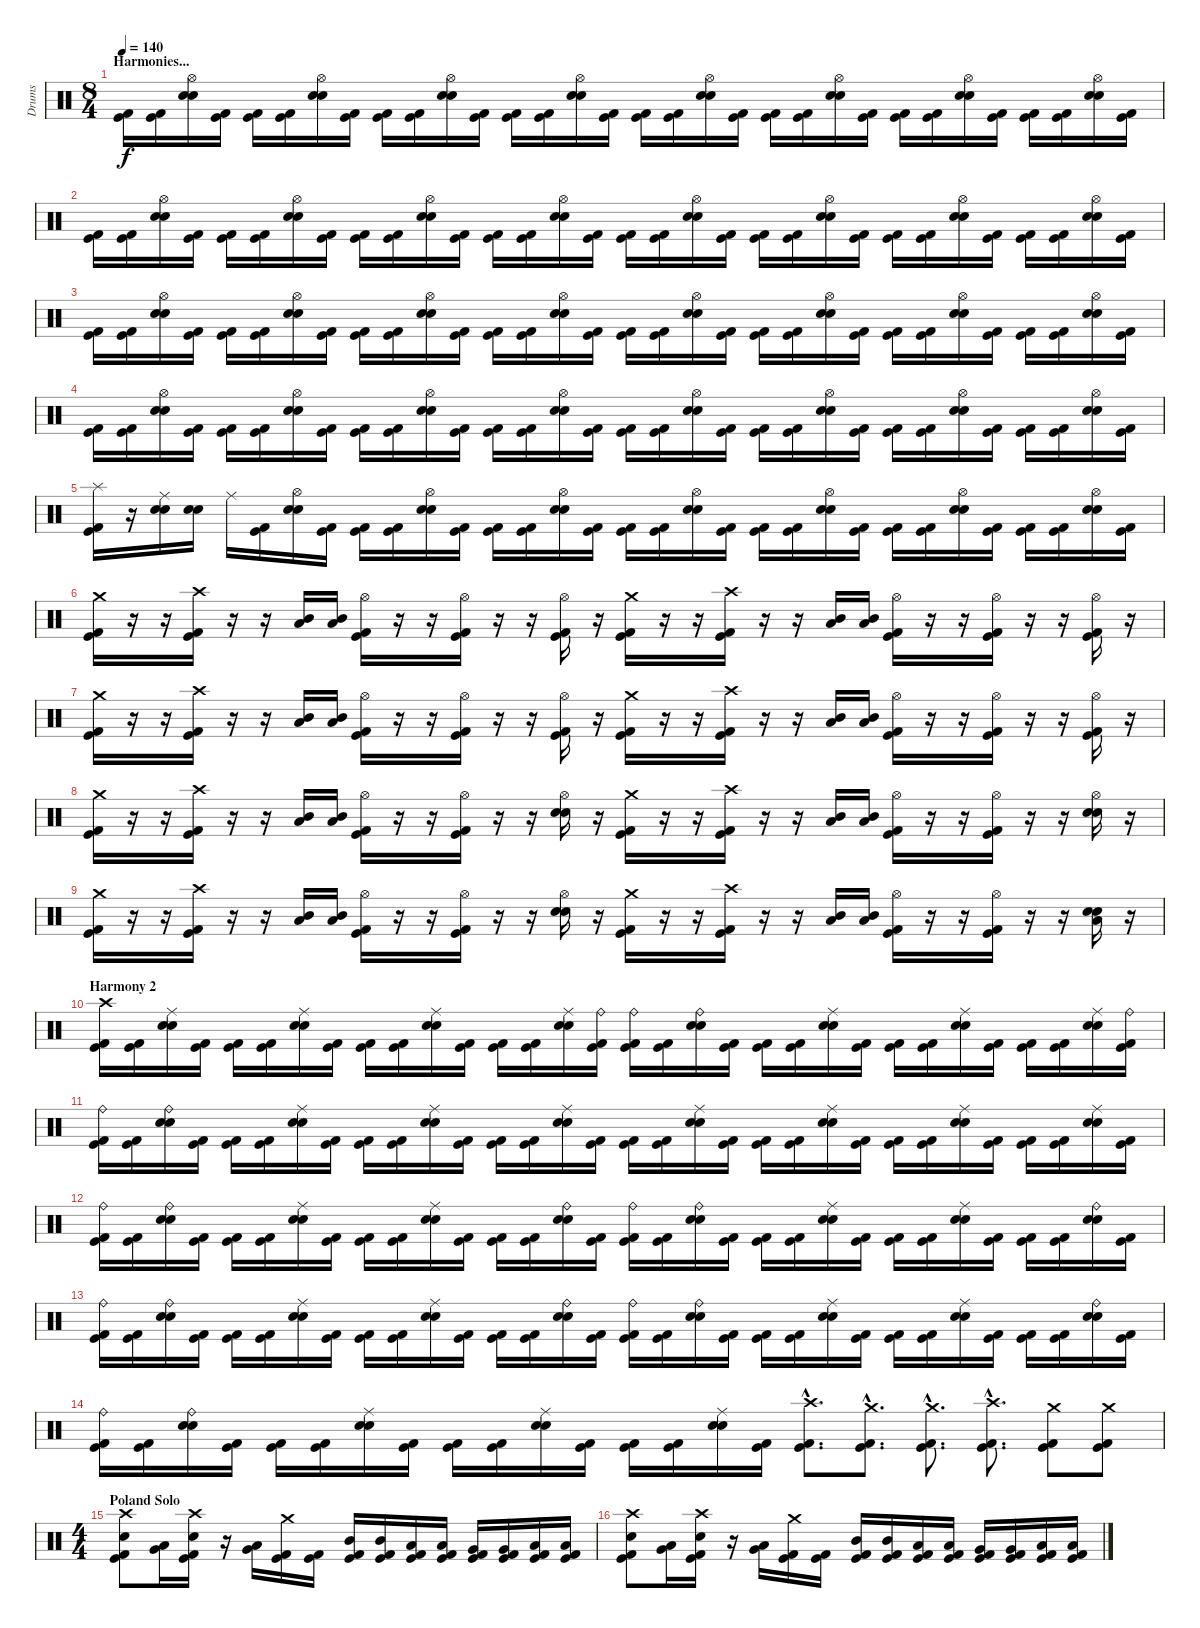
\track ("Drums" "Drums") {instrument percussion}
\staff {score}
\articulation defaults
\ts (8 4)
\section ("" "Harmonies...")
\tempo 140
\clef neutral
\ks c
("Kick (hit) 2" "Kick (hit)").16{dy f} ("Kick (hit) 2" "Kick (hit)").16 ("Hi-Hat (open)" "Snare (hit) 2" "Electric Snare (hit)").16 ("Kick (hit) 2" "Kick (hit)").16 ("Kick (hit) 2" "Kick (hit)").16 ("Kick (hit) 2" "Kick (hit)").16 ("Hi-Hat (open)" "Snare (hit) 2" "Electric Snare (hit)").16 ("Kick (hit) 2" "Kick (hit)").16 ("Kick (hit) 2" "Kick (hit)").16 ("Kick (hit) 2" "Kick (hit)").16 ("Hi-Hat (open)" "Snare (hit) 2" "Electric Snare (hit)").16 ("Kick (hit) 2" "Kick (hit)").16 ("Kick (hit) 2" "Kick (hit)").16 ("Kick (hit) 2" "Kick (hit)").16 ("Hi-Hat (open)" "Snare (hit) 2" "Electric Snare (hit)").16 ("Kick (hit) 2" "Kick (hit)").16 ("Kick (hit) 2" "Kick (hit)").16 ("Kick (hit) 2" "Kick (hit)").16 ("Hi-Hat (open)" "Snare (hit) 2" "Electric Snare (hit)").16 ("Kick (hit) 2" "Kick (hit)").16 ("Kick (hit) 2" "Kick (hit)").16 ("Kick (hit) 2" "Kick (hit)").16 ("Hi-Hat (open)" "Snare (hit) 2" "Electric Snare (hit)").16 ("Kick (hit) 2" "Kick (hit)").16 ("Kick (hit) 2" "Kick (hit)").16 ("Kick (hit) 2" "Kick (hit)").16 ("Hi-Hat (open)" "Snare (hit) 2" "Electric Snare (hit)").16 ("Kick (hit) 2" "Kick (hit)").16 ("Kick (hit) 2" "Kick (hit)").16 ("Kick (hit) 2" "Kick (hit)").16 ("Hi-Hat (open)" "Snare (hit) 2" "Electric Snare (hit)").16 ("Kick (hit) 2" "Kick (hit)").16 |
("Kick (hit) 2" "Kick (hit)").16 ("Kick (hit) 2" "Kick (hit)").16 ("Hi-Hat (open)" "Snare (hit) 2" "Electric Snare (hit)").16 ("Kick (hit) 2" "Kick (hit)").16 ("Kick (hit) 2" "Kick (hit)").16 ("Kick (hit) 2" "Kick (hit)").16 ("Hi-Hat (open)" "Snare (hit) 2" "Electric Snare (hit)").16 ("Kick (hit) 2" "Kick (hit)").16 ("Kick (hit) 2" "Kick (hit)").16 ("Kick (hit) 2" "Kick (hit)").16 ("Hi-Hat (open)" "Snare (hit) 2" "Electric Snare (hit)").16 ("Kick (hit) 2" "Kick (hit)").16 ("Kick (hit) 2" "Kick (hit)").16 ("Kick (hit) 2" "Kick (hit)").16 ("Hi-Hat (open)" "Snare (hit) 2" "Electric Snare (hit)").16 ("Kick (hit) 2" "Kick (hit)").16 ("Kick (hit) 2" "Kick (hit)").16 ("Kick (hit) 2" "Kick (hit)").16 ("Hi-Hat (open)" "Snare (hit) 2" "Electric Snare (hit)").16 ("Kick (hit) 2" "Kick (hit)").16 ("Kick (hit) 2" "Kick (hit)").16 ("Kick (hit) 2" "Kick (hit)").16 ("Hi-Hat (open)" "Snare (hit) 2" "Electric Snare (hit)").16 ("Kick (hit) 2" "Kick (hit)").16 ("Kick (hit) 2" "Kick (hit)").16 ("Kick (hit) 2" "Kick (hit)").16 ("Hi-Hat (open)" "Snare (hit) 2" "Electric Snare (hit)").16 ("Kick (hit) 2" "Kick (hit)").16 ("Kick (hit) 2" "Kick (hit)").16 ("Kick (hit) 2" "Kick (hit)").16 ("Hi-Hat (open)" "Snare (hit) 2" "Electric Snare (hit)").16 ("Kick (hit) 2" "Kick (hit)").16 |
("Kick (hit) 2" "Kick (hit)").16 ("Kick (hit) 2" "Kick (hit)").16 ("Hi-Hat (open)" "Snare (hit) 2" "Electric Snare (hit)").16 ("Kick (hit) 2" "Kick (hit)").16 ("Kick (hit) 2" "Kick (hit)").16 ("Kick (hit) 2" "Kick (hit)").16 ("Hi-Hat (open)" "Snare (hit) 2" "Electric Snare (hit)").16 ("Kick (hit) 2" "Kick (hit)").16 ("Kick (hit) 2" "Kick (hit)").16 ("Kick (hit) 2" "Kick (hit)").16 ("Hi-Hat (open)" "Snare (hit) 2" "Electric Snare (hit)").16 ("Kick (hit) 2" "Kick (hit)").16 ("Kick (hit) 2" "Kick (hit)").16 ("Kick (hit) 2" "Kick (hit)").16 ("Hi-Hat (open)" "Snare (hit) 2" "Electric Snare (hit)").16 ("Kick (hit) 2" "Kick (hit)").16 ("Kick (hit) 2" "Kick (hit)").16 ("Kick (hit) 2" "Kick (hit)").16 ("Hi-Hat (open)" "Snare (hit) 2" "Electric Snare (hit)").16 ("Kick (hit) 2" "Kick (hit)").16 ("Kick (hit) 2" "Kick (hit)").16 ("Kick (hit) 2" "Kick (hit)").16 ("Hi-Hat (open)" "Snare (hit) 2" "Electric Snare (hit)").16 ("Kick (hit) 2" "Kick (hit)").16 ("Kick (hit) 2" "Kick (hit)").16 ("Kick (hit) 2" "Kick (hit)").16 ("Hi-Hat (open)" "Snare (hit) 2" "Electric Snare (hit)").16 ("Kick (hit) 2" "Kick (hit)").16 ("Kick (hit) 2" "Kick (hit)").16 ("Kick (hit) 2" "Kick (hit)").16 ("Hi-Hat (open)" "Snare (hit) 2" "Electric Snare (hit)").16 ("Kick (hit) 2" "Kick (hit)").16 |
("Kick (hit) 2" "Kick (hit)").16 ("Kick (hit) 2" "Kick (hit)").16 ("Hi-Hat (open)" "Snare (hit) 2" "Electric Snare (hit)").16 ("Kick (hit) 2" "Kick (hit)").16 ("Kick (hit) 2" "Kick (hit)").16 ("Kick (hit) 2" "Kick (hit)").16 ("Hi-Hat (open)" "Snare (hit) 2" "Electric Snare (hit)").16 ("Kick (hit) 2" "Kick (hit)").16 ("Kick (hit) 2" "Kick (hit)").16 ("Kick (hit) 2" "Kick (hit)").16 ("Hi-Hat (open)" "Snare (hit) 2" "Electric Snare (hit)").16 ("Kick (hit) 2" "Kick (hit)").16 ("Kick (hit) 2" "Kick (hit)").16 ("Kick (hit) 2" "Kick (hit)").16 ("Hi-Hat (open)" "Snare (hit) 2" "Electric Snare (hit)").16 ("Kick (hit) 2" "Kick (hit)").16 ("Kick (hit) 2" "Kick (hit)").16 ("Kick (hit) 2" "Kick (hit)").16 ("Hi-Hat (open)" "Snare (hit) 2" "Electric Snare (hit)").16 ("Kick (hit) 2" "Kick (hit)").16 ("Kick (hit) 2" "Kick (hit)").16 ("Kick (hit) 2" "Kick (hit)").16 ("Hi-Hat (open)" "Snare (hit) 2" "Electric Snare (hit)").16 ("Kick (hit) 2" "Kick (hit)").16 ("Kick (hit) 2" "Kick (hit)").16 ("Kick (hit) 2" "Kick (hit)").16 ("Hi-Hat (open)" "Snare (hit) 2" "Electric Snare (hit)").16 ("Kick (hit) 2" "Kick (hit)").16 ("Kick (hit) 2" "Kick (hit)").16 ("Kick (hit) 2" "Kick (hit)").16 ("Hi-Hat (open)" "Snare (hit) 2" "Electric Snare (hit)").16 ("Kick (hit) 2" "Kick (hit)").16 |
("Splash (hit)" "Kick (hit) 2" "Kick (hit)").16 r.16 ("Ride (middle)" "Snare (hit) 2" "Electric Snare (hit)").16 ("Snare (hit) 2" "Electric Snare (hit)").16 "Ride (middle)".16 ("Kick (hit) 2" "Kick (hit)").16 ("Hi-Hat (open)" "Snare (hit) 2" "Electric Snare (hit)").16 ("Kick (hit) 2" "Kick (hit)").16 ("Kick (hit) 2" "Kick (hit)").16 ("Kick (hit) 2" "Kick (hit)").16 ("Hi-Hat (open)" "Snare (hit) 2" "Electric Snare (hit)").16 ("Kick (hit) 2" "Kick (hit)").16 ("Kick (hit) 2" "Kick (hit)").16 ("Kick (hit) 2" "Kick (hit)").16 ("Hi-Hat (open)" "Snare (hit) 2" "Electric Snare (hit)").16 ("Kick (hit) 2" "Kick (hit)").16 ("Kick (hit) 2" "Kick (hit)").16 ("Kick (hit) 2" "Kick (hit)").16 ("Hi-Hat (open)" "Snare (hit) 2" "Electric Snare (hit)").16 ("Kick (hit) 2" "Kick (hit)").16 ("Kick (hit) 2" "Kick (hit)").16 ("Kick (hit) 2" "Kick (hit)").16 ("Hi-Hat (open)" "Snare (hit) 2" "Electric Snare (hit)").16 ("Kick (hit) 2" "Kick (hit)").16 ("Kick (hit) 2" "Kick (hit)").16 ("Kick (hit) 2" "Kick (hit)").16 ("Hi-Hat (open)" "Snare (hit) 2" "Electric Snare (hit)").16 ("Kick (hit) 2" "Kick (hit)").16 ("Kick (hit) 2" "Kick (hit)").16 ("Kick (hit) 2" "Kick (hit)").16 ("Hi-Hat (open)" "Snare (hit) 2" "Electric Snare (hit)").16 ("Kick (hit) 2" "Kick (hit)").16 |
("Crash medium (hit)" "Kick (hit)" "Kick (hit) 2").16 r.16 r.16 ("Crash high (hit)" "Kick (hit)" "Kick (hit) 2").16 r.16 r.16 ("Low Tom (hit)" "Mid Tom (hit)").16 ("Low Tom (hit)" "Mid Tom (hit)").16 ("Hi-Hat (open)" "Kick (hit) 2" "Kick (hit)").16 r.16 r.16 ("Hi-Hat (open)" "Kick (hit)" "Kick (hit) 2").16 r.16 r.16 ("Hi-Hat (open)" "Kick (hit)" "Kick (hit) 2").16 r.16 ("Crash medium (hit)" "Kick (hit) 2" "Kick (hit)").16 r.16 r.16 ("Crash high (hit)" "Kick (hit)" "Kick (hit) 2").16 r.16 r.16 ("Low Tom (hit)" "Mid Tom (hit)").16 ("Low Tom (hit)" "Mid Tom (hit)").16 ("Hi-Hat (open)" "Kick (hit) 2" "Kick (hit)").16 r.16 r.16 ("Hi-Hat (open)" "Kick (hit)" "Kick (hit) 2").16 r.16 r.16 ("Hi-Hat (open)" "Kick (hit)" "Kick (hit) 2").16 r.16 |
("Crash medium (hit)" "Kick (hit)" "Kick (hit) 2").16 r.16 r.16 ("Crash high (hit)" "Kick (hit)" "Kick (hit) 2").16 r.16 r.16 ("Low Tom (hit)" "Mid Tom (hit)").16 ("Low Tom (hit)" "Mid Tom (hit)").16 ("Hi-Hat (open)" "Kick (hit) 2" "Kick (hit)").16 r.16 r.16 ("Hi-Hat (open)" "Kick (hit)" "Kick (hit) 2").16 r.16 r.16 ("Hi-Hat (open)" "Kick (hit)" "Kick (hit) 2").16 r.16 ("Crash medium (hit)" "Kick (hit) 2" "Kick (hit)").16 r.16 r.16 ("Crash high (hit)" "Kick (hit)" "Kick (hit) 2").16 r.16 r.16 ("Low Tom (hit)" "Mid Tom (hit)").16 ("Low Tom (hit)" "Mid Tom (hit)").16 ("Hi-Hat (open)" "Kick (hit) 2" "Kick (hit)").16 r.16 r.16 ("Hi-Hat (open)" "Kick (hit)" "Kick (hit) 2").16 r.16 r.16 ("Hi-Hat (open)" "Kick (hit)" "Kick (hit) 2").16 r.16 |
("Crash medium (hit)" "Kick (hit)" "Kick (hit) 2").16 r.16 r.16 ("Crash high (hit)" "Kick (hit)" "Kick (hit) 2").16 r.16 r.16 ("Low Tom (hit)" "Mid Tom (hit)").16 ("Low Tom (hit)" "Mid Tom (hit)").16 ("Hi-Hat (open)" "Kick (hit) 2" "Kick (hit)").16 r.16 r.16 ("Hi-Hat (open)" "Kick (hit)" "Kick (hit) 2").16 r.16 r.16 ("Hi-Hat (open)" "Snare (hit) 2" "Electric Snare (hit)").16 r.16 ("Crash medium (hit)" "Kick (hit) 2" "Kick (hit)").16 r.16 r.16 ("Crash high (hit)" "Kick (hit)" "Kick (hit) 2").16 r.16 r.16 ("Low Tom (hit)" "Mid Tom (hit)").16 ("Low Tom (hit)" "Mid Tom (hit)").16 ("Hi-Hat (open)" "Kick (hit) 2" "Kick (hit)").16 r.16 r.16 ("Hi-Hat (open)" "Kick (hit)" "Kick (hit) 2").16 r.16 r.16 ("Hi-Hat (open)" "Snare (hit) 2" "Electric Snare (hit)").16 r.16 |
("Crash medium (hit)" "Kick (hit)" "Kick (hit) 2").16 r.16 r.16 ("Crash high (hit)" "Kick (hit)" "Kick (hit) 2").16 r.16 r.16 ("Low Tom (hit)" "Mid Tom (hit)").16 ("Low Tom (hit)" "Mid Tom (hit)").16 ("Hi-Hat (open)" "Kick (hit) 2" "Kick (hit)").16 r.16 r.16 ("Hi-Hat (open)" "Kick (hit)" "Kick (hit) 2").16 r.16 r.16 ("Hi-Hat (open)" "Snare (hit) 2" "Electric Snare (hit)").16 r.16 ("Crash medium (hit)" "Kick (hit) 2" "Kick (hit)").16 r.16 r.16 ("Crash high (hit)" "Kick (hit)" "Kick (hit) 2").16 r.16 r.16 ("Low Tom (hit)" "Mid Tom (hit)").16 ("Low Tom (hit)" "Mid Tom (hit)").16 ("Hi-Hat (open)" "Kick (hit) 2" "Kick (hit)").16 r.16 r.16 ("Hi-Hat (open)" "Kick (hit)" "Kick (hit) 2").16 r.16 r.16 ("Low Floor Tom (hit)" "Snare (hit) 2" "Electric Snare (hit)").16 r.16 |
\section ("" "Harmony 2")
("Crash high (hit)" "Kick (hit) 2" "Kick (hit)").16 ("Kick (hit) 2" "Kick (hit)").16 ("Ride (middle)" "Snare (hit) 2" "Electric Snare (hit)").16 ("Kick (hit) 2" "Kick (hit)").16 ("Kick (hit) 2" "Kick (hit)").16 ("Kick (hit) 2" "Kick (hit)").16 ("Ride (middle)" "Snare (hit) 2" "Electric Snare (hit)").16 ("Kick (hit) 2" "Kick (hit)").16 ("Kick (hit) 2" "Kick (hit)").16 ("Kick (hit) 2" "Kick (hit)").16 ("Ride (middle)" "Snare (hit) 2" "Electric Snare (hit)").16 ("Kick (hit) 2" "Kick (hit)").16 ("Kick (hit) 2" "Kick (hit)").16 ("Kick (hit) 2" "Kick (hit)").16 ("Ride (middle)" "Snare (hit) 2" "Electric Snare (hit)").16 ("Ride (bell)" "Kick (hit) 2" "Kick (hit)").16 ("Ride (bell)" "Kick (hit) 2" "Kick (hit)").16 ("Kick (hit) 2" "Kick (hit)").16 ("Ride (bell)" "Snare (hit) 2" "Electric Snare (hit)").16 ("Kick (hit) 2" "Kick (hit)").16 ("Kick (hit) 2" "Kick (hit)").16 ("Kick (hit) 2" "Kick (hit)").16 ("Ride (middle)" "Snare (hit) 2" "Electric Snare (hit)").16 ("Kick (hit) 2" "Kick (hit)").16 ("Kick (hit) 2" "Kick (hit)").16 ("Kick (hit) 2" "Kick (hit)").16 ("Ride (middle)" "Snare (hit) 2" "Electric Snare (hit)").16 ("Kick (hit) 2" "Kick (hit)").16 ("Kick (hit) 2" "Kick (hit)").16 ("Kick (hit) 2" "Kick (hit)").16 ("Ride (middle)" "Snare (hit) 2" "Electric Snare (hit)").16 ("Ride (bell)" "Kick (hit) 2" "Kick (hit)").16 |
("Ride (bell)" "Kick (hit) 2" "Kick (hit)").16 ("Kick (hit) 2" "Kick (hit)").16 ("Ride (bell)" "Snare (hit) 2" "Electric Snare (hit)").16 ("Kick (hit) 2" "Kick (hit)").16 ("Kick (hit) 2" "Kick (hit)").16 ("Kick (hit) 2" "Kick (hit)").16 ("Ride (middle)" "Snare (hit) 2" "Electric Snare (hit)").16 ("Kick (hit) 2" "Kick (hit)").16 ("Kick (hit) 2" "Kick (hit)").16 ("Kick (hit) 2" "Kick (hit)").16 ("Ride (middle)" "Snare (hit) 2" "Electric Snare (hit)").16 ("Kick (hit) 2" "Kick (hit)").16 ("Kick (hit) 2" "Kick (hit)").16 ("Kick (hit) 2" "Kick (hit)").16 ("Ride (middle)" "Snare (hit) 2" "Electric Snare (hit)").16 ("Kick (hit) 2" "Kick (hit)").16 ("Kick (hit) 2" "Kick (hit)").16 ("Kick (hit) 2" "Kick (hit)").16 ("Ride (middle)" "Snare (hit) 2" "Electric Snare (hit)").16 ("Kick (hit) 2" "Kick (hit)").16 ("Kick (hit) 2" "Kick (hit)").16 ("Kick (hit) 2" "Kick (hit)").16 ("Ride (middle)" "Snare (hit) 2" "Electric Snare (hit)").16 ("Kick (hit) 2" "Kick (hit)").16 ("Kick (hit) 2" "Kick (hit)").16 ("Kick (hit) 2" "Kick (hit)").16 ("Ride (middle)" "Snare (hit) 2" "Electric Snare (hit)").16 ("Kick (hit) 2" "Kick (hit)").16 ("Kick (hit) 2" "Kick (hit)").16 ("Kick (hit) 2" "Kick (hit)").16 ("Ride (middle)" "Snare (hit) 2" "Electric Snare (hit)").16 ("Kick (hit) 2" "Kick (hit)").16 |
("Ride (bell)" "Kick (hit) 2" "Kick (hit)").16 ("Kick (hit) 2" "Kick (hit)").16 ("Ride (bell)" "Snare (hit) 2" "Electric Snare (hit)").16 ("Kick (hit) 2" "Kick (hit)").16 ("Kick (hit) 2" "Kick (hit)").16 ("Kick (hit) 2" "Kick (hit)").16 ("Ride (middle)" "Snare (hit) 2" "Electric Snare (hit)").16 ("Kick (hit) 2" "Kick (hit)").16 ("Kick (hit) 2" "Kick (hit)").16 ("Kick (hit) 2" "Kick (hit)").16 ("Ride (middle)" "Snare (hit) 2" "Electric Snare (hit)").16 ("Kick (hit) 2" "Kick (hit)").16 ("Kick (hit) 2" "Kick (hit)").16 ("Kick (hit) 2" "Kick (hit)").16 ("Ride (bell)" "Snare (hit) 2" "Electric Snare (hit)").16 ("Kick (hit) 2" "Kick (hit)").16 ("Ride (bell)" "Kick (hit) 2" "Kick (hit)").16 ("Kick (hit) 2" "Kick (hit)").16 ("Ride (bell)" "Snare (hit) 2" "Electric Snare (hit)").16 ("Kick (hit) 2" "Kick (hit)").16 ("Kick (hit) 2" "Kick (hit)").16 ("Kick (hit) 2" "Kick (hit)").16 ("Ride (middle)" "Snare (hit) 2" "Electric Snare (hit)").16 ("Kick (hit) 2" "Kick (hit)").16 ("Kick (hit) 2" "Kick (hit)").16 ("Kick (hit) 2" "Kick (hit)").16 ("Ride (middle)" "Snare (hit) 2" "Electric Snare (hit)").16 ("Kick (hit) 2" "Kick (hit)").16 ("Kick (hit) 2" "Kick (hit)").16 ("Kick (hit) 2" "Kick (hit)").16 ("Ride (bell)" "Snare (hit) 2" "Electric Snare (hit)").16 ("Kick (hit) 2" "Kick (hit)").16 |
("Ride (bell)" "Kick (hit) 2" "Kick (hit)").16 ("Kick (hit) 2" "Kick (hit)").16 ("Ride (bell)" "Snare (hit) 2" "Electric Snare (hit)").16 ("Kick (hit) 2" "Kick (hit)").16 ("Kick (hit) 2" "Kick (hit)").16 ("Kick (hit) 2" "Kick (hit)").16 ("Ride (middle)" "Snare (hit) 2" "Electric Snare (hit)").16 ("Kick (hit) 2" "Kick (hit)").16 ("Kick (hit) 2" "Kick (hit)").16 ("Kick (hit) 2" "Kick (hit)").16 ("Ride (middle)" "Snare (hit) 2" "Electric Snare (hit)").16 ("Kick (hit) 2" "Kick (hit)").16 ("Kick (hit) 2" "Kick (hit)").16 ("Kick (hit) 2" "Kick (hit)").16 ("Ride (bell)" "Snare (hit) 2" "Electric Snare (hit)").16 ("Kick (hit) 2" "Kick (hit)").16 ("Ride (bell)" "Kick (hit) 2" "Kick (hit)").16 ("Kick (hit) 2" "Kick (hit)").16 ("Ride (bell)" "Snare (hit) 2" "Electric Snare (hit)").16 ("Kick (hit) 2" "Kick (hit)").16 ("Kick (hit) 2" "Kick (hit)").16 ("Kick (hit) 2" "Kick (hit)").16 ("Ride (middle)" "Snare (hit) 2" "Electric Snare (hit)").16 ("Kick (hit) 2" "Kick (hit)").16 ("Kick (hit) 2" "Kick (hit)").16 ("Kick (hit) 2" "Kick (hit)").16 ("Ride (middle)" "Snare (hit) 2" "Electric Snare (hit)").16 ("Kick (hit) 2" "Kick (hit)").16 ("Kick (hit) 2" "Kick (hit)").16 ("Kick (hit) 2" "Kick (hit)").16 ("Ride (bell)" "Snare (hit) 2" "Electric Snare (hit)").16 ("Kick (hit) 2" "Kick (hit)").16 |
("Ride (bell)" "Kick (hit) 2" "Kick (hit)").16 ("Kick (hit) 2" "Kick (hit)").16 ("Ride (bell)" "Snare (hit) 2" "Electric Snare (hit)").16 ("Kick (hit) 2" "Kick (hit)").16 ("Kick (hit) 2" "Kick (hit)").16 ("Kick (hit) 2" "Kick (hit)").16 ("Ride (middle)" "Snare (hit) 2" "Electric Snare (hit)").16 ("Kick (hit) 2" "Kick (hit)").16 ("Kick (hit) 2" "Kick (hit)").16 ("Kick (hit) 2" "Kick (hit)").16 ("Ride (middle)" "Snare (hit) 2" "Electric Snare (hit)").16 ("Kick (hit) 2" "Kick (hit)").16 ("Kick (hit) 2" "Kick (hit)").16 ("Kick (hit) 2" "Kick (hit)").16 ("Ride (middle)" "Snare (hit) 2" "Electric Snare (hit)").16 ("Kick (hit) 2" "Kick (hit)").16 ("Crash high (hit)"{hac} "Kick (hit) 2"{hac} "Kick (hit)"{hac}).8{d} ("Crash medium (hit)"{hac} "Kick (hit) 2"{hac} "Kick (hit)"{hac}).8{d} ("Crash medium (hit)"{hac} "Kick (hit)"{hac} "Kick (hit) 2"{hac}).8{d} ("Crash high (hit)"{hac} "Kick (hit) 2"{hac} "Kick (hit)"{hac}).8{d} ("Crash medium (hit)" "Kick (hit) 2" "Kick (hit)").8 ("Crash medium (hit)" "Kick (hit) 2" "Kick (hit)").8 |
\ts (4 4)
\section ("" "Poland Solo")
("Crash high (hit)" "Electric Snare (hit)" "Kick (hit)" "Kick (hit) 2").8 ("Very Low Tom (hit)" "Low Tom (hit)").16 ("Crash high (hit)" "Electric Snare (hit)" "Kick (hit)" "Kick (hit) 2").16 r.16 ("Very Low Tom (hit)" "Low Tom (hit)").16 ("Crash medium (hit)" "Kick (hit) 2" "Kick (hit)").16 ("Kick (hit)" "Kick (hit) 2").16 ("Mid Tom (hit)" "Kick (hit) 2" "Kick (hit)").16 ("Mid Tom (hit)" "Kick (hit) 2" "Kick (hit)").16 ("Low Tom (hit)" "Kick (hit) 2" "Kick (hit)").16 ("Low Tom (hit)" "Kick (hit) 2" "Kick (hit)").16 ("Very Low Tom (hit)" "Kick (hit) 2" "Kick (hit)").16 ("Very Low Tom (hit)" "Kick (hit) 2" "Kick (hit)").16 ("Low Tom (hit)" "Kick (hit) 2" "Kick (hit)").16 ("Low Tom (hit)" "Kick (hit) 2" "Kick (hit)").16 |
("Crash high (hit)" "Electric Snare (hit)" "Kick (hit)" "Kick (hit) 2").8 ("Very Low Tom (hit)" "Low Tom (hit)").16 ("Crash high (hit)" "Electric Snare (hit)" "Kick (hit)" "Kick (hit) 2").16 r.16 ("Very Low Tom (hit)" "Low Tom (hit)").16 ("Crash medium (hit)" "Kick (hit) 2" "Kick (hit)").16 ("Kick (hit)" "Kick (hit) 2").16 ("Mid Tom (hit)" "Kick (hit) 2" "Kick (hit)").16 ("Mid Tom (hit)" "Kick (hit) 2" "Kick (hit)").16 ("Low Tom (hit)" "Kick (hit) 2" "Kick (hit)").16 ("Low Tom (hit)" "Kick (hit) 2" "Kick (hit)").16 ("Very Low Tom (hit)" "Kick (hit) 2" "Kick (hit)").16 ("Very Low Tom (hit)" "Kick (hit) 2" "Kick (hit)").16 ("Low Tom (hit)" "Kick (hit) 2" "Kick (hit)").16 ("Low Tom (hit)" "Kick (hit) 2" "Kick (hit)").16
